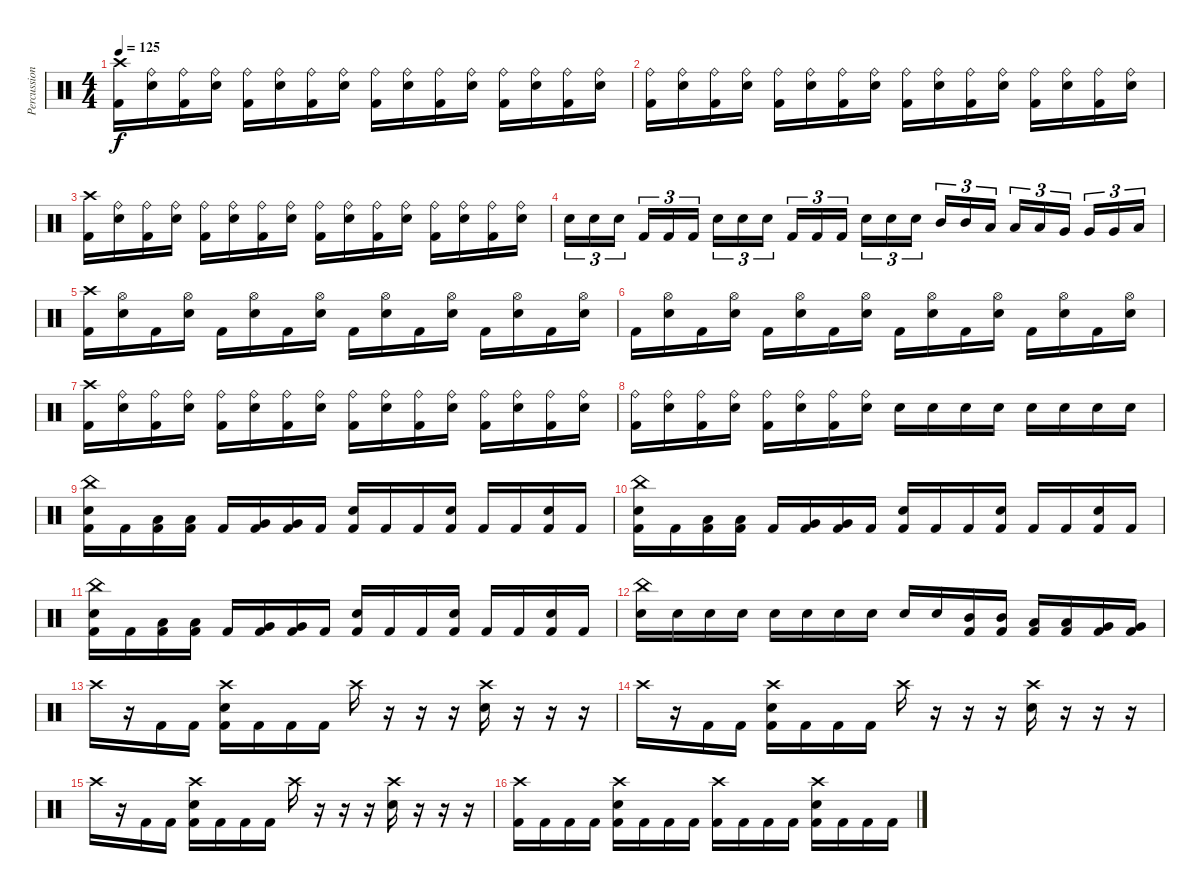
\track ("Percussion" "Percussion") {instrument percussion}
\staff {score}
\articulation defaults
\ts (4 4)
\tempo 125
\clef neutral
\ks c
("Crash high (hit)" "Kick (hit) 2").16{dy f} ("Ride (bell)" "Snare (hit) 2").16 ("Ride (bell)" "Kick (hit) 2").16 ("Ride (bell)" "Snare (hit) 2").16 ("Ride (bell)" "Kick (hit) 2").16 ("Ride (bell)" "Snare (hit) 2").16 ("Ride (bell)" "Kick (hit) 2").16 ("Ride (bell)" "Snare (hit) 2").16 ("Ride (bell)" "Kick (hit) 2").16 ("Ride (bell)" "Snare (hit) 2").16 ("Ride (bell)" "Kick (hit) 2").16 ("Ride (bell)" "Snare (hit) 2").16 ("Ride (bell)" "Kick (hit) 2").16 ("Ride (bell)" "Snare (hit) 2").16 ("Ride (bell)" "Kick (hit) 2").16 ("Ride (bell)" "Snare (hit) 2").16 |
("Ride (bell)" "Kick (hit) 2").16 ("Ride (bell)" "Snare (hit) 2").16 ("Ride (bell)" "Kick (hit) 2").16 ("Ride (bell)" "Snare (hit) 2").16 ("Ride (bell)" "Kick (hit) 2").16 ("Ride (bell)" "Snare (hit) 2").16 ("Ride (bell)" "Kick (hit) 2").16 ("Ride (bell)" "Snare (hit) 2").16 ("Ride (bell)" "Kick (hit) 2").16 ("Ride (bell)" "Snare (hit) 2").16 ("Ride (bell)" "Kick (hit) 2").16 ("Ride (bell)" "Snare (hit) 2").16 ("Ride (bell)" "Kick (hit) 2").16 ("Ride (bell)" "Snare (hit) 2").16 ("Ride (bell)" "Kick (hit) 2").16 ("Ride (bell)" "Snare (hit) 2").16 |
("Crash high (hit)" "Kick (hit) 2").16 ("Ride (bell)" "Snare (hit) 2").16 ("Ride (bell)" "Kick (hit) 2").16 ("Ride (bell)" "Snare (hit) 2").16 ("Ride (bell)" "Kick (hit) 2").16 ("Ride (bell)" "Snare (hit) 2").16 ("Ride (bell)" "Kick (hit) 2").16 ("Ride (bell)" "Snare (hit) 2").16 ("Ride (bell)" "Kick (hit) 2").16 ("Ride (bell)" "Snare (hit) 2").16 ("Ride (bell)" "Kick (hit) 2").16 ("Ride (bell)" "Snare (hit) 2").16 ("Ride (bell)" "Kick (hit) 2").16 ("Ride (bell)" "Snare (hit) 2").16 ("Ride (bell)" "Kick (hit) 2").16 ("Ride (bell)" "Snare (hit) 2").16 |
"Snare (hit) 2".16{tu (3 2)} "Snare (hit) 2".16{tu (3 2)} "Snare (hit) 2".16{tu (3 2) beam splitsecondary} "Kick (hit) 2".16{tu (3 2)} "Kick (hit) 2".16{tu (3 2)} "Kick (hit) 2".16{tu (3 2)} "Snare (hit) 2".16{tu (3 2)} "Snare (hit) 2".16{tu (3 2)} "Snare (hit) 2".16{tu (3 2) beam splitsecondary} "Kick (hit) 2".16{tu (3 2)} "Kick (hit) 2".16{tu (3 2)} "Kick (hit) 2".16{tu (3 2)} "Snare (hit) 2".16{tu (3 2)} "Snare (hit) 2".16{tu (3 2)} "Snare (hit) 2".16{tu (3 2) beam splitsecondary} "Mid Tom (hit)".16{tu (3 2)} "Mid Tom (hit)".16{tu (3 2)} "Low Tom (hit)".16{tu (3 2)} "Low Tom (hit)".16{tu (3 2)} "Low Tom (hit)".16{tu (3 2)} "Very Low Tom (hit)".16{tu (3 2) beam splitsecondary} "Very Low Tom (hit)".16{tu (3 2)} "Very Low Tom (hit)".16{tu (3 2)} "Low Floor Tom (hit)".16{tu (3 2)} |
("Crash high (hit)" "Kick (hit) 2").16 ("Hi-Hat (open)" "Snare (hit) 2").16 "Kick (hit) 2".16 ("Hi-Hat (open)" "Snare (hit) 2").16 "Kick (hit) 2".16 ("Hi-Hat (open)" "Snare (hit) 2").16 "Kick (hit) 2".16 ("Hi-Hat (open)" "Snare (hit) 2").16 "Kick (hit) 2".16 ("Hi-Hat (open)" "Snare (hit) 2").16 "Kick (hit) 2".16 ("Hi-Hat (open)" "Snare (hit) 2").16 "Kick (hit) 2".16 ("Hi-Hat (open)" "Snare (hit) 2").16 "Kick (hit) 2".16 ("Hi-Hat (open)" "Snare (hit) 2").16 |
"Kick (hit) 2".16 ("Hi-Hat (open)" "Snare (hit) 2").16 "Kick (hit) 2".16 ("Hi-Hat (open)" "Snare (hit) 2").16 "Kick (hit) 2".16 ("Hi-Hat (open)" "Snare (hit) 2").16 "Kick (hit) 2".16 ("Hi-Hat (open)" "Snare (hit) 2").16 "Kick (hit) 2".16 ("Hi-Hat (open)" "Snare (hit) 2").16 "Kick (hit) 2".16 ("Hi-Hat (open)" "Snare (hit) 2").16 "Kick (hit) 2".16 ("Hi-Hat (open)" "Snare (hit) 2").16 "Kick (hit) 2".16 ("Hi-Hat (open)" "Snare (hit) 2").16 |
("Crash high (hit)" "Kick (hit) 2").16 ("Ride (bell)" "Snare (hit) 2").16 ("Ride (bell)" "Kick (hit) 2").16 ("Ride (bell)" "Snare (hit) 2").16 ("Ride (bell)" "Kick (hit) 2").16 ("Ride (bell)" "Snare (hit) 2").16 ("Ride (bell)" "Kick (hit) 2").16 ("Ride (bell)" "Snare (hit) 2").16 ("Ride (bell)" "Kick (hit) 2").16 ("Ride (bell)" "Snare (hit) 2").16 ("Ride (bell)" "Kick (hit) 2").16 ("Ride (bell)" "Snare (hit) 2").16 ("Ride (bell)" "Kick (hit) 2").16 ("Ride (bell)" "Snare (hit) 2").16 ("Ride (bell)" "Kick (hit) 2").16 ("Ride (bell)" "Snare (hit) 2").16 |
("Ride (bell)" "Kick (hit) 2").16 ("Ride (bell)" "Snare (hit) 2").16 ("Ride (bell)" "Kick (hit) 2").16 ("Ride (bell)" "Snare (hit) 2").16 ("Ride (bell)" "Kick (hit) 2").16 ("Ride (bell)" "Snare (hit) 2").16 ("Ride (bell)" "Kick (hit) 2").16 ("Ride (bell)" "Snare (hit) 2").16 "Snare (hit) 2".16 "Snare (hit) 2".16 "Snare (hit) 2".16 "Snare (hit) 2".16 "Snare (hit) 2".16 "Snare (hit) 2".16 "Snare (hit) 2".16 "Snare (hit) 2".16 |
("China (hit)" "Snare (hit) 2" "Kick (hit) 2").16 "Kick (hit) 2".16 ("Low Tom (hit)" "Kick (hit) 2").16 ("Low Tom (hit)" "Kick (hit) 2").16 "Kick (hit) 2".16 ("Very Low Tom (hit)" "Kick (hit) 2").16 ("Very Low Tom (hit)" "Kick (hit) 2").16 "Kick (hit) 2".16 ("Snare (hit) 2" "Kick (hit) 2").16 "Kick (hit) 2".16 "Kick (hit) 2".16 ("Snare (hit) 2" "Kick (hit) 2").16 "Kick (hit) 2".16 "Kick (hit) 2".16 ("Snare (hit) 2" "Kick (hit) 2").16 "Kick (hit) 2".16 |
("China (hit)" "Snare (hit) 2" "Kick (hit) 2").16 "Kick (hit) 2".16 ("Low Tom (hit)" "Kick (hit) 2").16 ("Low Tom (hit)" "Kick (hit) 2").16 "Kick (hit) 2".16 ("Very Low Tom (hit)" "Kick (hit) 2").16 ("Very Low Tom (hit)" "Kick (hit) 2").16 "Kick (hit) 2".16 ("Snare (hit) 2" "Kick (hit) 2").16 "Kick (hit) 2".16 "Kick (hit) 2".16 ("Snare (hit) 2" "Kick (hit) 2").16 "Kick (hit) 2".16 "Kick (hit) 2".16 ("Snare (hit) 2" "Kick (hit) 2").16 "Kick (hit) 2".16 |
("China (hit)" "Snare (hit) 2" "Kick (hit) 2").16 "Kick (hit) 2".16 ("Low Tom (hit)" "Kick (hit) 2").16 ("Low Tom (hit)" "Kick (hit) 2").16 "Kick (hit) 2".16 ("Very Low Tom (hit)" "Kick (hit) 2").16 ("Very Low Tom (hit)" "Kick (hit) 2").16 "Kick (hit) 2".16 ("Snare (hit) 2" "Kick (hit) 2").16 "Kick (hit) 2".16 "Kick (hit) 2".16 ("Snare (hit) 2" "Kick (hit) 2").16 "Kick (hit) 2".16 "Kick (hit) 2".16 ("Snare (hit) 2" "Kick (hit) 2").16 "Kick (hit) 2".16 |
("China (hit)" "Snare (hit) 2").16 "Snare (hit) 2".16 "Snare (hit) 2".16 "Snare (hit) 2".16 "Snare (hit) 2".16 "Snare (hit) 2".16 "Snare (hit) 2".16 "Snare (hit) 2".16 "Snare (hit) 2".16 "Snare (hit) 2".16 ("Mid Tom (hit)" "Kick (hit) 2").16 ("Mid Tom (hit)" "Kick (hit) 2").16 ("Low Tom (hit)" "Kick (hit) 2").16 ("Low Tom (hit)" "Kick (hit) 2").16 ("Very Low Tom (hit)" "Kick (hit) 2").16 ("Very Low Tom (hit)" "Kick (hit) 2").16 |
"Crash high (hit)".16 r.16 "Kick (hit) 2".16 "Kick (hit) 2".16 ("Crash high (hit)" "Snare (hit) 2" "Kick (hit) 2").16 "Kick (hit) 2".16 "Kick (hit) 2".16 "Kick (hit) 2".16 "Crash high (hit)".16 r.16 r.16 r.16 ("Crash high (hit)" "Snare (hit) 2").16 r.16 r.16 r.16 |
"Crash high (hit)".16 r.16 "Kick (hit) 2".16 "Kick (hit) 2".16 ("Crash high (hit)" "Snare (hit) 2" "Kick (hit) 2").16 "Kick (hit) 2".16 "Kick (hit) 2".16 "Kick (hit) 2".16 "Crash high (hit)".16 r.16 r.16 r.16 ("Crash high (hit)" "Snare (hit) 2").16 r.16 r.16 r.16 |
"Crash high (hit)".16 r.16 "Kick (hit) 2".16 "Kick (hit) 2".16 ("Crash high (hit)" "Snare (hit) 2" "Kick (hit) 2").16 "Kick (hit) 2".16 "Kick (hit) 2".16 "Kick (hit) 2".16 "Crash high (hit)".16 r.16 r.16 r.16 ("Crash high (hit)" "Snare (hit) 2").16 r.16 r.16 r.16 |
("Crash high (hit)" "Kick (hit) 2").16 "Kick (hit) 2".16 "Kick (hit) 2".16 "Kick (hit) 2".16 ("Crash high (hit)" "Snare (hit) 2" "Kick (hit) 2").16 "Kick (hit) 2".16 "Kick (hit) 2".16 "Kick (hit) 2".16 ("Crash high (hit)" "Kick (hit) 2").16 "Kick (hit) 2".16 "Kick (hit) 2".16 "Kick (hit) 2".16 ("Crash high (hit)" "Snare (hit) 2" "Kick (hit) 2").16 "Kick (hit) 2".16 "Kick (hit) 2".16 "Kick (hit) 2".16
